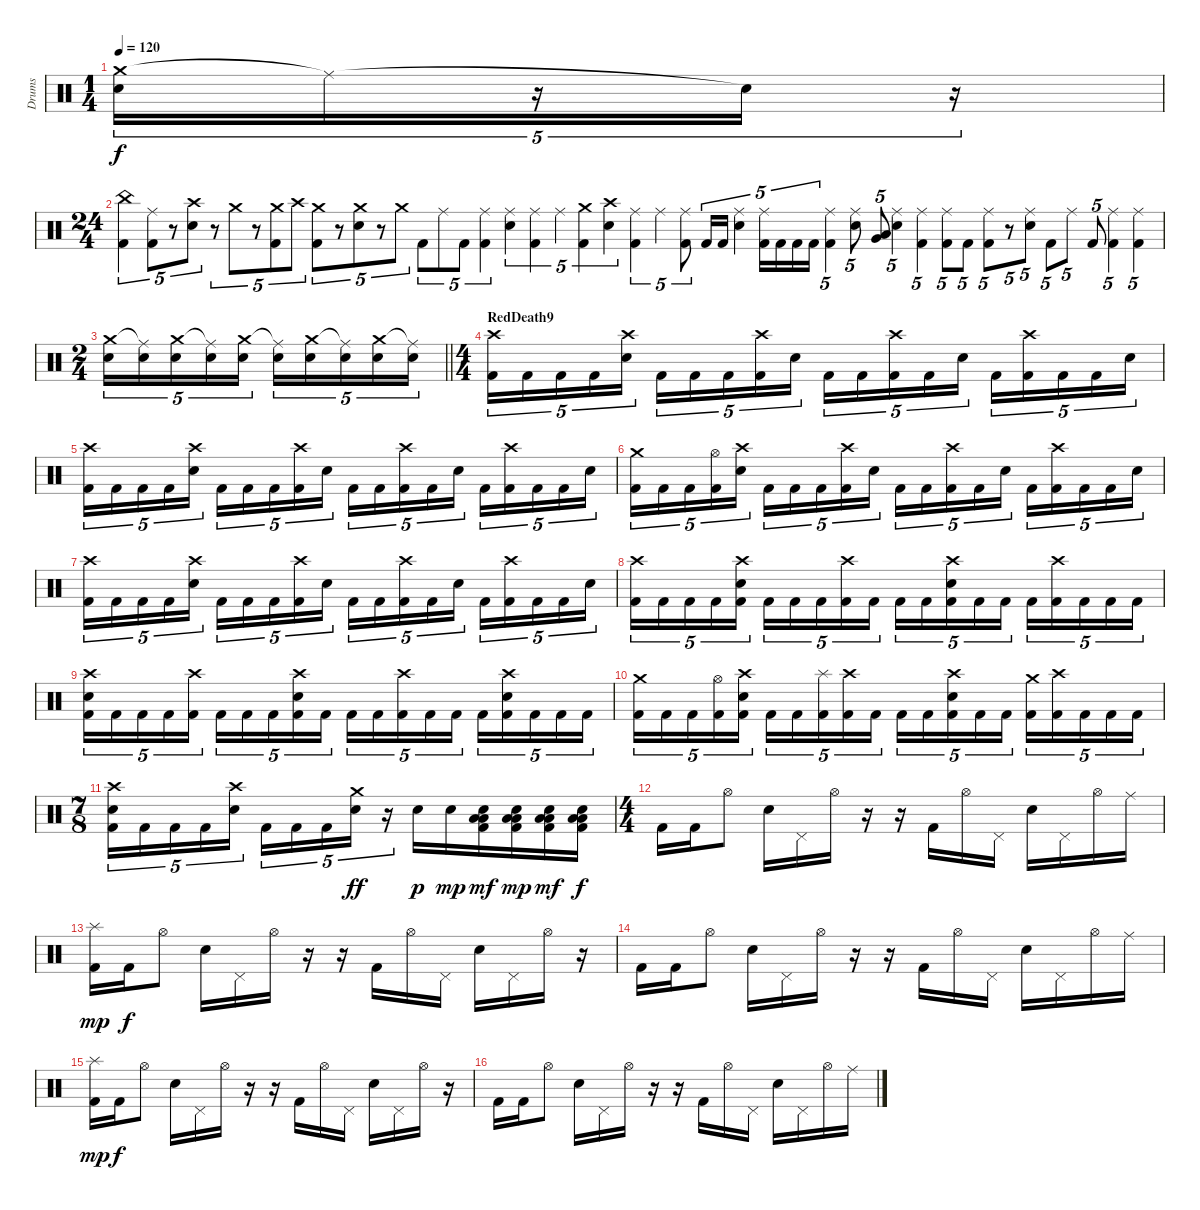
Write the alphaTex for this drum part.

\track ("Drums" "Drums") {instrument percussion}
\staff {score}
\articulation defaults
\ts (1 4)
\tempo 120
\clef neutral
\ks c
("Crash medium (hit)" "Electric Snare (hit)").16{tu (5 4) dy f} "Ride (middle)"{t}.16{tu (5 4)} r.16{tu (5 4)} "Snare (hit)"{t}.16{tu (5 4)} r.16{tu (5 4)} |
\ts (24 4)
("China (hit)" "Kick (hit) 2").4{tu (5 4)} ("Ride (middle)" "Kick (hit) 2").8{tu (5 4)} r.8{tu (5 4)} ("Crash high (hit)" "Electric Snare (hit)").8{tu (5 4)} r.8{tu (5 4)} "Crash medium (hit)".8{tu (5 4)} r.8{tu (5 4)} ("Crash medium (hit)" "Kick (hit) 2").8{tu (5 4)} "Crash high (hit)".8{tu (5 4)} ("Crash medium (hit)" "Kick (hit) 2").8{tu (5 4)} r.8{tu (5 4)} ("Crash medium (hit)" "Electric Snare (hit)").8{tu (5 4)} r.8{tu (5 4)} "Crash medium (hit)".8{tu (5 4)} "Kick (hit) 2".8{tu (5 4)} "Ride (middle)".8{tu (5 4)} "Kick (hit) 2".8{tu (5 4)} ("Ride (middle)" "Kick (hit) 2").4{tu (5 4)} ("Ride (middle)" "Electric Snare (hit)").4{tu (5 4)} ("Ride (middle)" "Kick (hit) 2").4{tu (5 4)} "Ride (middle)".4{tu (5 4)} ("Crash medium (hit)" "Kick (hit) 2").4{tu (5 4)} ("Crash high (hit)" "Electric Snare (hit)").4{tu (5 4)} ("Ride (middle)" "Kick (hit) 2").4{tu (5 4)} "Ride (middle)".4{tu (5 4)} ("Ride (middle)" "Kick (hit) 2").8{tu (5 4)} "Kick (hit) 2".16{tu (5 4)} "Kick (hit) 2".16{tu (5 4)} ("Ride (middle)" "Electric Snare (hit)").4{tu (5 4)} ("Ride (middle)" "Kick (hit) 2").16{tu (5 4)} "Kick (hit) 2".16{tu (5 4)} "Kick (hit) 2".16{tu (5 4)} "Kick (hit) 2".16{tu (5 4)} ("Ride (middle)" "Kick (hit) 2").4{tu (5 4)} ("Ride (middle)" "Electric Snare (hit)").8{tu (5 4)} ("Low Tom (hit)" "Very Low Tom (hit)").8{tu (5 4)} ("Ride (middle)" "Electric Snare (hit)").4{tu (5 4)} ("Ride (middle)" "Kick (hit) 2").4{tu (5 4)} ("Ride (middle)" "Kick (hit) 2").8{tu (5 4)} "Kick (hit) 2".8{tu (5 4)} ("Ride (middle)" "Kick (hit) 2").8{tu (5 4)} r.8{tu (5 4)} ("Ride (middle)" "Electric Snare (hit)").8{tu (5 4)} "Kick (hit) 2".8{tu (5 4)} "Ride (middle)".8{tu (5 4)} "Kick (hit) 2".8{tu (5 4)} ("Ride (middle)" "Kick (hit) 2").4{tu (5 4)} ("Ride (middle)" "Kick (hit) 2").4{tu (5 4)} |
\ts (2 4)
\barLineRight lightlight
("Crash medium (hit)" "Electric Snare (hit)").16{tu (5 4)} ("Ride (middle)"{t} "Electric Snare (hit)").16{tu (5 4)} ("Crash medium (hit)" "Electric Snare (hit)").16{tu (5 4)} ("Ride (middle)"{t} "Electric Snare (hit)").16{tu (5 4)} ("Crash medium (hit)" "Electric Snare (hit)").16{tu (5 4)} ("Ride (middle)"{t} "Electric Snare (hit)").16{tu (5 4)} ("Crash medium (hit)" "Electric Snare (hit)").16{tu (5 4)} ("Ride (middle)"{t} "Electric Snare (hit)").16{tu (5 4)} ("Crash medium (hit)" "Electric Snare (hit)").16{tu (5 4)} ("Ride (middle)"{t} "Electric Snare (hit)").16{tu (5 4)} |
\ts (4 4)
\section ("" "RedDeath9")
("Crash high (hit)" "Kick (hit) 2").16{tu (5 4)} "Kick (hit) 2".16{tu (5 4)} "Kick (hit) 2".16{tu (5 4)} "Kick (hit) 2".16{tu (5 4)} ("Crash high (hit)" "Electric Snare (hit)").16{tu (5 4)} "Kick (hit) 2".16{tu (5 4)} "Kick (hit) 2".16{tu (5 4)} "Kick (hit) 2".16{tu (5 4)} ("Crash high (hit)" "Kick (hit) 2").16{tu (5 4)} "Electric Snare (hit)".16{tu (5 4)} "Kick (hit) 2".16{tu (5 4)} "Kick (hit) 2".16{tu (5 4)} ("Crash high (hit)" "Kick (hit) 2").16{tu (5 4)} "Kick (hit) 2".16{tu (5 4)} "Electric Snare (hit)".16{tu (5 4)} "Kick (hit) 2".16{tu (5 4)} ("Crash high (hit)" "Kick (hit) 2").16{tu (5 4)} "Kick (hit) 2".16{tu (5 4)} "Kick (hit) 2".16{tu (5 4)} "Electric Snare (hit)".16{tu (5 4)} |
("Crash high (hit)" "Kick (hit) 2").16{tu (5 4)} "Kick (hit) 2".16{tu (5 4)} "Kick (hit) 2".16{tu (5 4)} "Kick (hit) 2".16{tu (5 4)} ("Crash high (hit)" "Electric Snare (hit)").16{tu (5 4)} "Kick (hit) 2".16{tu (5 4)} "Kick (hit) 2".16{tu (5 4)} "Kick (hit) 2".16{tu (5 4)} ("Crash high (hit)" "Kick (hit) 2").16{tu (5 4)} "Electric Snare (hit)".16{tu (5 4)} "Kick (hit) 2".16{tu (5 4)} "Kick (hit) 2".16{tu (5 4)} ("Crash high (hit)" "Kick (hit) 2").16{tu (5 4)} "Kick (hit) 2".16{tu (5 4)} "Electric Snare (hit)".16{tu (5 4)} "Kick (hit) 2".16{tu (5 4)} ("Crash high (hit)" "Kick (hit) 2").16{tu (5 4)} "Kick (hit) 2".16{tu (5 4)} "Kick (hit) 2".16{tu (5 4)} "Electric Snare (hit)".16{tu (5 4)} |
("Crash medium (hit)" "Kick (hit) 2").16{tu (5 4)} "Kick (hit) 2".16{tu (5 4)} "Kick (hit) 2".16{tu (5 4)} ("Hi-Hat (open)" "Kick (hit) 2").16{tu (5 4)} ("Crash high (hit)" "Electric Snare (hit)").16{tu (5 4)} "Kick (hit) 2".16{tu (5 4)} "Kick (hit) 2".16{tu (5 4)} "Kick (hit) 2".16{tu (5 4)} ("Crash high (hit)" "Kick (hit) 2").16{tu (5 4)} "Electric Snare (hit)".16{tu (5 4)} "Kick (hit) 2".16{tu (5 4)} "Kick (hit) 2".16{tu (5 4)} ("Crash high (hit)" "Kick (hit) 2").16{tu (5 4)} "Kick (hit) 2".16{tu (5 4)} "Electric Snare (hit)".16{tu (5 4)} "Kick (hit) 2".16{tu (5 4)} ("Crash high (hit)" "Kick (hit) 2").16{tu (5 4)} "Kick (hit) 2".16{tu (5 4)} "Kick (hit) 2".16{tu (5 4)} "Electric Snare (hit)".16{tu (5 4)} |
("Crash high (hit)" "Kick (hit) 2").16{tu (5 4)} "Kick (hit) 2".16{tu (5 4)} "Kick (hit) 2".16{tu (5 4)} "Kick (hit) 2".16{tu (5 4)} ("Crash high (hit)" "Electric Snare (hit)").16{tu (5 4)} "Kick (hit) 2".16{tu (5 4)} "Kick (hit) 2".16{tu (5 4)} "Kick (hit) 2".16{tu (5 4)} ("Crash high (hit)" "Kick (hit) 2").16{tu (5 4)} "Electric Snare (hit)".16{tu (5 4)} "Kick (hit) 2".16{tu (5 4)} "Kick (hit) 2".16{tu (5 4)} ("Crash high (hit)" "Kick (hit) 2").16{tu (5 4)} "Kick (hit) 2".16{tu (5 4)} "Electric Snare (hit)".16{tu (5 4)} "Kick (hit) 2".16{tu (5 4)} ("Crash high (hit)" "Kick (hit) 2").16{tu (5 4)} "Kick (hit) 2".16{tu (5 4)} "Kick (hit) 2".16{tu (5 4)} "Electric Snare (hit)".16{tu (5 4)} |
("Crash high (hit)" "Kick (hit) 2").16{tu (5 4)} "Kick (hit) 2".16{tu (5 4)} "Kick (hit) 2".16{tu (5 4)} "Kick (hit) 2".16{tu (5 4)} ("Crash high (hit)" "Electric Snare (hit)" "Kick (hit) 2").16{tu (5 4)} "Kick (hit) 2".16{tu (5 4)} "Kick (hit) 2".16{tu (5 4)} "Kick (hit) 2".16{tu (5 4)} ("Crash high (hit)" "Kick (hit) 2").16{tu (5 4)} "Kick (hit) 2".16{tu (5 4)} "Kick (hit) 2".16{tu (5 4)} "Kick (hit) 2".16{tu (5 4)} ("Crash high (hit)" "Electric Snare (hit)" "Kick (hit) 2").16{tu (5 4)} "Kick (hit) 2".16{tu (5 4)} "Kick (hit) 2".16{tu (5 4)} "Kick (hit) 2".16{tu (5 4)} ("Crash high (hit)" "Kick (hit) 2").16{tu (5 4)} "Kick (hit) 2".16{tu (5 4)} "Kick (hit) 2".16{tu (5 4)} "Kick (hit) 2".16{tu (5 4)} |
("Crash high (hit)" "Electric Snare (hit)" "Kick (hit) 2").16{tu (5 4)} "Kick (hit) 2".16{tu (5 4)} "Kick (hit) 2".16{tu (5 4)} "Kick (hit) 2".16{tu (5 4)} ("Crash high (hit)" "Kick (hit) 2").16{tu (5 4)} "Kick (hit) 2".16{tu (5 4)} "Kick (hit) 2".16{tu (5 4)} "Kick (hit) 2".16{tu (5 4)} ("Crash high (hit)" "Electric Snare (hit)" "Kick (hit) 2").16{tu (5 4)} "Kick (hit) 2".16{tu (5 4)} "Kick (hit) 2".16{tu (5 4)} "Kick (hit) 2".16{tu (5 4)} ("Crash high (hit)" "Kick (hit) 2").16{tu (5 4)} "Kick (hit) 2".16{tu (5 4)} "Kick (hit) 2".16{tu (5 4)} "Kick (hit) 2".16{tu (5 4)} ("Crash high (hit)" "Electric Snare (hit)" "Kick (hit) 2").16{tu (5 4)} "Kick (hit) 2".16{tu (5 4)} "Kick (hit) 2".16{tu (5 4)} "Kick (hit) 2".16{tu (5 4)} |
("Crash medium (hit)" "Kick (hit) 2").16{tu (5 4)} "Kick (hit) 2".16{tu (5 4)} "Kick (hit) 2".16{tu (5 4)} ("Hi-Hat (open)" "Kick (hit) 2").16{tu (5 4)} ("Crash high (hit)" "Electric Snare (hit)" "Kick (hit) 2").16{tu (5 4)} "Kick (hit) 2".16{tu (5 4)} "Kick (hit) 2".16{tu (5 4)} ("Splash (hit)" "Kick (hit) 2").16{tu (5 4)} ("Crash high (hit)" "Kick (hit) 2").16{tu (5 4)} "Kick (hit) 2".16{tu (5 4)} "Kick (hit) 2".16{tu (5 4)} "Kick (hit) 2".16{tu (5 4)} ("Crash high (hit)" "Electric Snare (hit)" "Kick (hit) 2").16{tu (5 4)} "Kick (hit) 2".16{tu (5 4)} "Kick (hit) 2".16{tu (5 4)} ("Crash medium (hit)" "Kick (hit) 2").16{tu (5 4)} ("Crash high (hit)" "Kick (hit) 2").16{tu (5 4)} "Kick (hit) 2".16{tu (5 4)} "Kick (hit) 2".16{tu (5 4)} "Kick (hit) 2".16{tu (5 4)} |
\ts (7 8)
("Crash high (hit)" "Electric Snare (hit)" "Kick (hit) 2").16{tu (5 4)} "Kick (hit) 2".16{tu (5 4)} "Kick (hit) 2".16{tu (5 4)} "Kick (hit) 2".16{tu (5 4)} ("Crash high (hit)" "Electric Snare (hit)").16{tu (5 4)} "Kick (hit) 2".16{tu (5 4)} "Kick (hit) 2".16{tu (5 4)} "Kick (hit) 2".16{tu (5 4)} ("Crash medium (hit)" "Electric Snare (hit)").16{tu (5 4) dy ff} r.16{tu (5 4)} "Electric Snare (hit)".16{dy p} "Electric Snare (hit)".16{dy mp} ("Low Floor Tom (hit)" "Low Tom (hit)" "Electric Snare (hit)" "Kick (hit) 2").16{dy mf} ("Low Floor Tom (hit)" "Low Tom (hit)" "Electric Snare (hit)" "Kick (hit) 2").16{dy mp} ("Low Floor Tom (hit)" "Low Tom (hit)" "Electric Snare (hit)" "Kick (hit) 2").16{dy mf} ("Low Floor Tom (hit)" "Low Tom (hit)" "Electric Snare (hit)" "Kick (hit) 2").16{dy f} |
\ts (4 4)
"Kick (hit) 2".16 "Kick (hit) 2".16 "Hi-Hat (open)".8 "Electric Snare (hit)".16 "Pedal Hi-Hat (hit)".16 "Hi-Hat (open)".16 r.16 r.16 "Kick (hit) 2".16 "Hi-Hat (open)".16 "Pedal Hi-Hat (hit)".16 "Electric Snare (hit)".16 "Pedal Hi-Hat (hit)".16 "Hi-Hat (open)".16 "Ride (middle)".16 |
("Splash (hit)" "Kick (hit) 2").16{dy mp} "Kick (hit) 2".16{dy f} "Hi-Hat (open)".8 "Electric Snare (hit)".16 "Pedal Hi-Hat (hit)".16 "Hi-Hat (open)".16 r.16 r.16 "Kick (hit) 2".16 "Hi-Hat (open)".16 "Pedal Hi-Hat (hit)".16 "Electric Snare (hit)".16 "Pedal Hi-Hat (hit)".16 "Hi-Hat (open)".16 r.16 |
"Kick (hit) 2".16 "Kick (hit) 2".16 "Hi-Hat (open)".8 "Electric Snare (hit)".16 "Pedal Hi-Hat (hit)".16 "Hi-Hat (open)".16 r.16 r.16 "Kick (hit) 2".16 "Hi-Hat (open)".16 "Pedal Hi-Hat (hit)".16 "Electric Snare (hit)".16 "Pedal Hi-Hat (hit)".16 "Hi-Hat (open)".16 "Ride (middle)".16 |
("Splash (hit)" "Kick (hit) 2").16{dy mp} "Kick (hit) 2".16{dy f} "Hi-Hat (open)".8 "Electric Snare (hit)".16 "Pedal Hi-Hat (hit)".16 "Hi-Hat (open)".16 r.16 r.16 "Kick (hit) 2".16 "Hi-Hat (open)".16 "Pedal Hi-Hat (hit)".16 "Electric Snare (hit)".16 "Pedal Hi-Hat (hit)".16 "Hi-Hat (open)".16 r.16 |
"Kick (hit) 2".16 "Kick (hit) 2".16 "Hi-Hat (open)".8 "Electric Snare (hit)".16 "Pedal Hi-Hat (hit)".16 "Hi-Hat (open)".16 r.16 r.16 "Kick (hit) 2".16 "Hi-Hat (open)".16 "Pedal Hi-Hat (hit)".16 "Electric Snare (hit)".16 "Pedal Hi-Hat (hit)".16 "Hi-Hat (open)".16 "Ride (middle)".16
